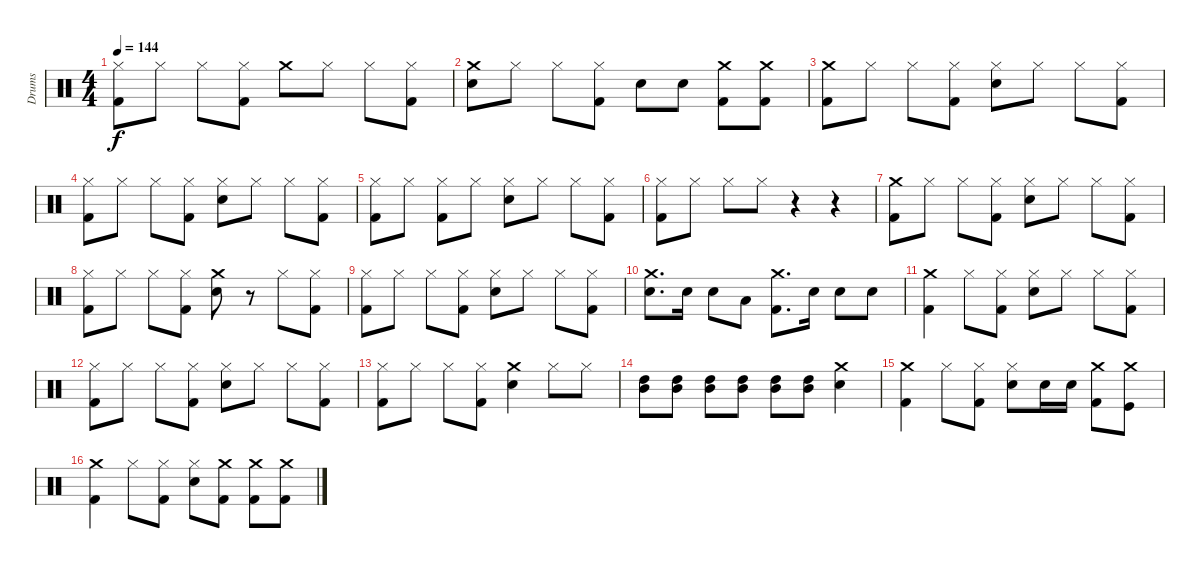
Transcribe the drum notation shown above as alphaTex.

\track ("Drums" "Drums") {instrument percussion}
\staff {score}
\articulation defaults
\ts (4 4)
\tempo 144
\clef neutral
\ks c
("Kick (hit) 2" "Hi-Hat (closed)").8{dy f} "Hi-Hat (closed)".8 "Hi-Hat (closed)".8 ("Kick (hit) 2" "Hi-Hat (closed)").8 "Crash medium (hit)".8 "Hi-Hat (closed)".8 "Hi-Hat (closed)".8 ("Kick (hit) 2" "Hi-Hat (closed)").8 |
("Crash medium (hit)" "Snare (hit) 2").8 "Hi-Hat (closed)".8 "Hi-Hat (closed)".8 ("Kick (hit) 2" "Hi-Hat (closed)").8 "Snare (hit) 2".8 "Snare (hit) 2".8 ("Kick (hit) 2" "Crash medium (hit)").8 ("Kick (hit) 2" "Crash medium (hit)").8 |
("Crash medium (hit)" "Kick (hit) 2").8 "Hi-Hat (closed)".8 "Hi-Hat (closed)".8 ("Kick (hit) 2" "Hi-Hat (closed)").8 ("Snare (hit) 2" "Hi-Hat (closed)").8 "Hi-Hat (closed)".8 "Hi-Hat (closed)".8 ("Kick (hit) 2" "Hi-Hat (closed)").8 |
("Hi-Hat (closed)" "Kick (hit) 2").8 "Hi-Hat (closed)".8 "Hi-Hat (closed)".8 ("Kick (hit) 2" "Hi-Hat (closed)").8 ("Snare (hit) 2" "Hi-Hat (closed)").8 "Hi-Hat (closed)".8 "Hi-Hat (closed)".8 ("Kick (hit) 2" "Hi-Hat (closed)").8 |
("Hi-Hat (closed)" "Kick (hit) 2").8 "Hi-Hat (closed)".8 ("Kick (hit) 2" "Hi-Hat (closed)").8 "Hi-Hat (closed)".8 ("Snare (hit) 2" "Hi-Hat (closed)").8 "Hi-Hat (closed)".8 "Hi-Hat (closed)".8 ("Kick (hit) 2" "Hi-Hat (closed)").8 |
("Hi-Hat (closed)" "Kick (hit) 2").8 "Hi-Hat (closed)".8 "Hi-Hat (closed)".8 "Hi-Hat (closed)".8 r.4 r.4 |
("Kick (hit) 2" "Crash medium (hit)").8 "Hi-Hat (closed)".8 "Hi-Hat (closed)".8 ("Kick (hit) 2" "Hi-Hat (closed)").8 ("Snare (hit) 2" "Hi-Hat (closed)").8 "Hi-Hat (closed)".8 "Hi-Hat (closed)".8 ("Kick (hit) 2" "Hi-Hat (closed)").8 |
("Hi-Hat (closed)" "Kick (hit) 2").8 "Hi-Hat (closed)".8 "Hi-Hat (closed)".8 ("Kick (hit) 2" "Hi-Hat (closed)").8 ("Crash medium (hit)" "Snare (hit) 2").8 r.8 "Hi-Hat (closed)".8 ("Kick (hit) 2" "Hi-Hat (closed)").8 |
("Hi-Hat (closed)" "Kick (hit) 2").8 "Hi-Hat (closed)".8 "Hi-Hat (closed)".8 ("Kick (hit) 2" "Hi-Hat (closed)").8 ("Hi-Hat (closed)" "Snare (hit) 2").8 "Hi-Hat (closed)".8 "Hi-Hat (closed)".8 ("Kick (hit) 2" "Hi-Hat (closed)").8 |
("Snare (hit) 2" "Crash medium (hit)").8{d} "Snare (hit) 2".16 "Snare (hit) 2".8 "Low Tom (hit)".8 ("Kick (hit) 2" "Crash medium (hit)").8{d} "Snare (hit) 2".16 "Snare (hit) 2".8 "Snare (hit) 2".8 |
("Kick (hit) 2" "Crash medium (hit)").4 "Hi-Hat (closed)".8 ("Kick (hit) 2" "Hi-Hat (closed)").8 ("Snare (hit) 2" "Hi-Hat (closed)").8 "Hi-Hat (closed)".8 "Hi-Hat (closed)".8 ("Kick (hit) 2" "Hi-Hat (closed)").8 |
("Kick (hit) 2" "Hi-Hat (closed)").8 "Hi-Hat (closed)".8 "Hi-Hat (closed)".8 ("Kick (hit) 2" "Hi-Hat (closed)").8 ("Snare (hit) 2" "Hi-Hat (closed)").8 "Hi-Hat (closed)".8 "Hi-Hat (closed)".8 ("Kick (hit) 2" "Hi-Hat (closed)").8 |
("Hi-Hat (closed)" "Kick (hit) 2").8 "Hi-Hat (closed)".8 "Hi-Hat (closed)".8 ("Kick (hit) 2" "Hi-Hat (closed)").8 ("Crash medium (hit)" "Snare (hit) 2").4 "Hi-Hat (closed)".8 "Hi-Hat (closed)".8 |
("High Tom (hit)" "Mid Tom (hit)").8 ("Mid Tom (hit)" "High Tom (hit)").8 ("Mid Tom (hit)" "High Tom (hit)").8 ("Mid Tom (hit)" "High Tom (hit)").8 ("Mid Tom (hit)" "High Tom (hit)").8 ("Mid Tom (hit)" "High Tom (hit)").8 ("Snare (hit) 2" "Crash medium (hit)").4 |
("Crash medium (hit)" "Kick (hit) 2").4 "Hi-Hat (closed)".8 ("Kick (hit) 2" "Hi-Hat (closed)").8 ("Snare (hit) 2" "Hi-Hat (closed)").8 "Snare (hit) 2".16 "Snare (hit) 2".16 ("Crash medium (hit)" "Kick (hit) 2").8 ("Crash medium (hit)" "Kick (hit)").8 |
("Kick (hit) 2" "Crash medium (hit)").4 "Hi-Hat (closed)".8 ("Kick (hit) 2" "Hi-Hat (closed)").8 ("Hi-Hat (closed)" "Snare (hit) 2").8 ("Kick (hit) 2" "Crash medium (hit)").8 ("Kick (hit) 2" "Crash medium (hit)").8 ("Kick (hit) 2" "Crash medium (hit)").8
